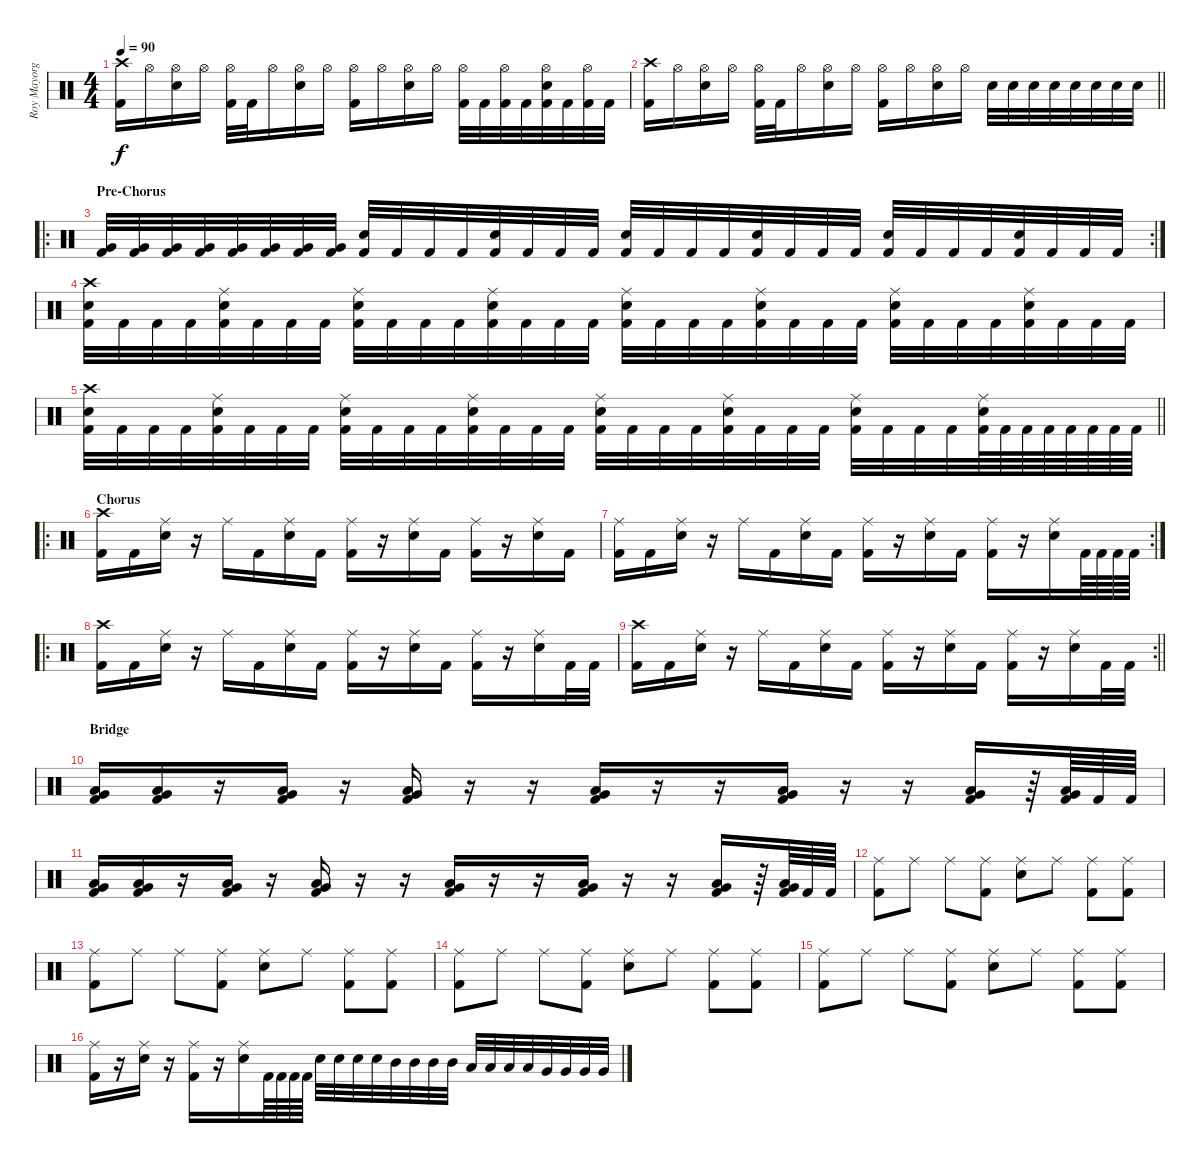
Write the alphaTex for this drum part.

\track ("Roy Mayorga" "Roy Mayorg") {instrument percussion}
\staff {score}
\articulation defaults
\ts (4 4)
\tempo 90
\clef neutral
\ks c
("Kick (hit) 2" "Crash high (hit)").16{dy f} "Hi-Hat (open)".16 ("Electric Snare (hit)" "Hi-Hat (open)").16 "Hi-Hat (open)".16 ("Kick (hit) 2" "Hi-Hat (open)").32 "Kick (hit) 2".32 "Hi-Hat (open)".16 ("Electric Snare (hit)" "Hi-Hat (open)").16 "Hi-Hat (open)".16 ("Kick (hit) 2" "Hi-Hat (open)").16 "Hi-Hat (open)".16 ("Electric Snare (hit)" "Hi-Hat (open)").16 "Hi-Hat (open)".16 ("Kick (hit) 2" "Hi-Hat (open)").32 "Kick (hit) 2".32 ("Kick (hit) 2" "Hi-Hat (open)").32 "Kick (hit) 2".32 ("Kick (hit) 2" "Electric Snare (hit)" "Hi-Hat (open)").32 "Kick (hit) 2".32 ("Kick (hit) 2" "Hi-Hat (open)").32 "Kick (hit) 2".32 |
\barLineRight lightlight
("Kick (hit) 2" "Crash high (hit)").16 "Hi-Hat (open)".16 ("Electric Snare (hit)" "Hi-Hat (open)").16 "Hi-Hat (open)".16 ("Kick (hit) 2" "Hi-Hat (open)").32 "Kick (hit) 2".32 "Hi-Hat (open)".16 ("Electric Snare (hit)" "Hi-Hat (open)").16 "Hi-Hat (open)".16 ("Kick (hit) 2" "Hi-Hat (open)").16 "Hi-Hat (open)".16 ("Electric Snare (hit)" "Hi-Hat (open)").16 "Hi-Hat (open)".16 "Electric Snare (hit)".32 "Electric Snare (hit)".32 "Electric Snare (hit)".32 "Electric Snare (hit)".32 "Electric Snare (hit)".32 "Electric Snare (hit)".32 "Electric Snare (hit)".32 "Electric Snare (hit)".32 |
\ro
\rc 2
\section ("" "Pre-Chorus")
("Kick (hit) 2" "Very Low Tom (hit)").32 ("Kick (hit) 2" "Very Low Tom (hit)").32 ("Kick (hit) 2" "Very Low Tom (hit)").32 ("Kick (hit) 2" "Very Low Tom (hit)").32 ("Kick (hit) 2" "Very Low Tom (hit)").32 ("Kick (hit) 2" "Very Low Tom (hit)").32 ("Kick (hit) 2" "Very Low Tom (hit)").32 ("Kick (hit) 2" "Very Low Tom (hit)").32 ("Kick (hit) 2" "Electric Snare (hit)").32 "Kick (hit) 2".32 "Kick (hit) 2".32 "Kick (hit) 2".32 ("Kick (hit) 2" "Electric Snare (hit)").32 "Kick (hit) 2".32 "Kick (hit) 2".32 "Kick (hit) 2".32 ("Kick (hit) 2" "Electric Snare (hit)").32 "Kick (hit) 2".32 "Kick (hit) 2".32 "Kick (hit) 2".32 ("Kick (hit) 2" "Electric Snare (hit)").32 "Kick (hit) 2".32 "Kick (hit) 2".32 "Kick (hit) 2".32 ("Kick (hit) 2" "Electric Snare (hit)").32 "Kick (hit) 2".32 "Kick (hit) 2".32 "Kick (hit) 2".32 ("Kick (hit) 2" "Electric Snare (hit)").32 "Kick (hit) 2".32 "Kick (hit) 2".32 "Kick (hit) 2".32 |
("Kick (hit) 2" "Electric Snare (hit)" "Crash high (hit)").32 "Kick (hit) 2".32 "Kick (hit) 2".32 "Kick (hit) 2".32 ("Kick (hit) 2" "Electric Snare (hit)" "Ride (middle)").32 "Kick (hit) 2".32 "Kick (hit) 2".32 "Kick (hit) 2".32 ("Kick (hit) 2" "Electric Snare (hit)" "Ride (middle)").32 "Kick (hit) 2".32 "Kick (hit) 2".32 "Kick (hit) 2".32 ("Kick (hit) 2" "Electric Snare (hit)" "Ride (middle)").32 "Kick (hit) 2".32 "Kick (hit) 2".32 "Kick (hit) 2".32 ("Kick (hit) 2" "Electric Snare (hit)" "Ride (middle)").32 "Kick (hit) 2".32 "Kick (hit) 2".32 "Kick (hit) 2".32 ("Kick (hit) 2" "Electric Snare (hit)" "Ride (middle)").32 "Kick (hit) 2".32 "Kick (hit) 2".32 "Kick (hit) 2".32 ("Kick (hit) 2" "Electric Snare (hit)" "Ride (middle)").32 "Kick (hit) 2".32 "Kick (hit) 2".32 "Kick (hit) 2".32 ("Kick (hit) 2" "Electric Snare (hit)" "Ride (middle)").32 "Kick (hit) 2".32 "Kick (hit) 2".32 "Kick (hit) 2".32 |
\barLineRight lightlight
("Kick (hit) 2" "Electric Snare (hit)" "Crash high (hit)").32 "Kick (hit) 2".32 "Kick (hit) 2".32 "Kick (hit) 2".32 ("Kick (hit) 2" "Electric Snare (hit)" "Ride (middle)").32 "Kick (hit) 2".32 "Kick (hit) 2".32 "Kick (hit) 2".32 ("Kick (hit) 2" "Electric Snare (hit)" "Ride (middle)").32 "Kick (hit) 2".32 "Kick (hit) 2".32 "Kick (hit) 2".32 ("Kick (hit) 2" "Electric Snare (hit)" "Ride (middle)").32 "Kick (hit) 2".32 "Kick (hit) 2".32 "Kick (hit) 2".32 ("Kick (hit) 2" "Electric Snare (hit)" "Ride (middle)").32 "Kick (hit) 2".32 "Kick (hit) 2".32 "Kick (hit) 2".32 ("Kick (hit) 2" "Electric Snare (hit)" "Ride (middle)").32 "Kick (hit) 2".32 "Kick (hit) 2".32 "Kick (hit) 2".32 ("Kick (hit) 2" "Electric Snare (hit)" "Ride (middle)").32 "Kick (hit) 2".32 "Kick (hit) 2".32 "Kick (hit) 2".32 ("Kick (hit) 2" "Electric Snare (hit)" "Ride (middle)").64 "Kick (hit) 2".64 "Kick (hit) 2".64 "Kick (hit) 2".64 "Kick (hit) 2".64 "Kick (hit) 2".64 "Kick (hit) 2".64 "Kick (hit) 2".64 |
\ro
\section ("" "Chorus")
("Kick (hit) 2" "Crash high (hit)").16 "Kick (hit) 2".16 ("Electric Snare (hit)" "Ride (middle)").16 r.16 "Ride (middle)".16 "Kick (hit) 2".16 ("Electric Snare (hit)" "Ride (middle)").16 "Kick (hit) 2".16 ("Kick (hit) 2" "Ride (middle)").16 r.16 ("Electric Snare (hit)" "Ride (middle)").16 "Kick (hit) 2".16 ("Kick (hit) 2" "Ride (middle)").16 r.16 ("Electric Snare (hit)" "Ride (middle)").16 "Kick (hit) 2".16 |
\rc 2
("Kick (hit) 2" "Ride (middle)").16 "Kick (hit) 2".16 ("Electric Snare (hit)" "Ride (middle)").16 r.16 "Ride (middle)".16 "Kick (hit) 2".16 ("Electric Snare (hit)" "Ride (middle)").16 "Kick (hit) 2".16 ("Kick (hit) 2" "Ride (middle)").16 r.16 ("Electric Snare (hit)" "Ride (middle)").16 "Kick (hit) 2".16 ("Kick (hit) 2" "Ride (middle)").16 r.16 ("Electric Snare (hit)" "Ride (middle)").16 "Kick (hit) 2".64 "Kick (hit) 2".64 "Kick (hit) 2".64 "Kick (hit) 2".64 |
\ro
("Kick (hit) 2" "Crash high (hit)").16 "Kick (hit) 2".16 ("Electric Snare (hit)" "Ride (middle)").16 r.16 "Ride (middle)".16 "Kick (hit) 2".16 ("Electric Snare (hit)" "Ride (middle)").16 "Kick (hit) 2".16 ("Kick (hit) 2" "Ride (middle)").16 r.16 ("Electric Snare (hit)" "Ride (middle)").16 "Kick (hit) 2".16 ("Kick (hit) 2" "Ride (middle)").16 r.16 ("Electric Snare (hit)" "Ride (middle)").16 "Kick (hit) 2".32 "Kick (hit) 2".32 |
\rc 2
\barLineRight lightlight
("Kick (hit) 2" "Crash high (hit)").16 "Kick (hit) 2".16 ("Electric Snare (hit)" "Ride (middle)").16 r.16 "Ride (middle)".16 "Kick (hit) 2".16 ("Electric Snare (hit)" "Ride (middle)").16 "Kick (hit) 2".16 ("Kick (hit) 2" "Ride (middle)").16 r.16 ("Electric Snare (hit)" "Ride (middle)").16 "Kick (hit) 2".16 ("Kick (hit) 2" "Ride (middle)").16 r.16 ("Electric Snare (hit)" "Ride (middle)").16 "Kick (hit) 2".32 "Kick (hit) 2".32 |
\section ("" "Bridge")
("Kick (hit) 2" "Low Tom (hit)" "Very Low Tom (hit)").16 ("Kick (hit) 2" "Low Tom (hit)" "Very Low Tom (hit)").16 r.16 ("Kick (hit) 2" "Low Tom (hit)" "Very Low Tom (hit)").16 r.16 ("Kick (hit) 2" "Low Tom (hit)" "Very Low Tom (hit)").16 r.16 r.16 ("Kick (hit) 2" "Low Tom (hit)" "Very Low Tom (hit)").16 r.16 r.16 ("Kick (hit) 2" "Low Tom (hit)" "Very Low Tom (hit)").16 r.16 r.16 ("Kick (hit) 2" "Low Tom (hit)" "Very Low Tom (hit)").16 r.64 ("Kick (hit) 2" "Low Tom (hit)" "Very Low Tom (hit)").64 "Kick (hit) 2".64 "Kick (hit) 2".64 |
("Kick (hit) 2" "Low Tom (hit)" "Very Low Tom (hit)").16 ("Kick (hit) 2" "Low Tom (hit)" "Very Low Tom (hit)").16 r.16 ("Kick (hit) 2" "Low Tom (hit)" "Very Low Tom (hit)").16 r.16 ("Kick (hit) 2" "Low Tom (hit)" "Very Low Tom (hit)").16 r.16 r.16 ("Kick (hit) 2" "Low Tom (hit)" "Very Low Tom (hit)").16 r.16 r.16 ("Kick (hit) 2" "Low Tom (hit)" "Very Low Tom (hit)").16 r.16 r.16 ("Kick (hit) 2" "Low Tom (hit)" "Very Low Tom (hit)").16 r.64 ("Kick (hit) 2" "Low Tom (hit)" "Very Low Tom (hit)").64 "Kick (hit) 2".64 "Kick (hit) 2".64 |
("Kick (hit) 2" "Ride (middle)").8 "Ride (middle)".8 "Ride (middle)".8 ("Kick (hit) 2" "Ride (middle)").8 ("Electric Snare (hit)" "Ride (middle)").8 "Ride (middle)".8 ("Kick (hit) 2" "Ride (middle)").8 ("Kick (hit) 2" "Ride (middle)").8 |
("Kick (hit) 2" "Ride (middle)").8 "Ride (middle)".8 "Ride (middle)".8 ("Kick (hit) 2" "Ride (middle)").8 ("Electric Snare (hit)" "Ride (middle)").8 "Ride (middle)".8 ("Kick (hit) 2" "Ride (middle)").8 ("Kick (hit) 2" "Ride (middle)").8 |
("Kick (hit) 2" "Ride (middle)").8 "Ride (middle)".8 "Ride (middle)".8 ("Kick (hit) 2" "Ride (middle)").8 ("Electric Snare (hit)" "Ride (middle)").8 "Ride (middle)".8 ("Kick (hit) 2" "Ride (middle)").8 ("Kick (hit) 2" "Ride (middle)").8 |
("Kick (hit) 2" "Ride (middle)").8 "Ride (middle)".8 "Ride (middle)".8 ("Kick (hit) 2" "Ride (middle)").8 ("Electric Snare (hit)" "Ride (middle)").8 "Ride (middle)".8 ("Kick (hit) 2" "Ride (middle)").8 ("Kick (hit) 2" "Ride (middle)").8 |
("Kick (hit) 2" "Ride (middle)").16 r.16 ("Electric Snare (hit)" "Ride (middle)").16 r.16 ("Kick (hit) 2" "Ride (middle)").16 r.16 ("Electric Snare (hit)" "Ride (middle)").16 "Kick (hit) 2".64 "Kick (hit) 2".64 "Kick (hit) 2".64 "Kick (hit) 2".64 "Electric Snare (hit)".32 "Electric Snare (hit)".32 "Electric Snare (hit)".32 "Electric Snare (hit)".32 "Mid Tom (hit)".32 "Mid Tom (hit)".32 "Mid Tom (hit)".32 "Mid Tom (hit)".32 "Low Tom (hit)".32 "Low Tom (hit)".32 "Low Tom (hit)".32 "Low Tom (hit)".32 "Very Low Tom (hit)".32 "Very Low Tom (hit)".32 "Very Low Tom (hit)".32 "Very Low Tom (hit)".32
